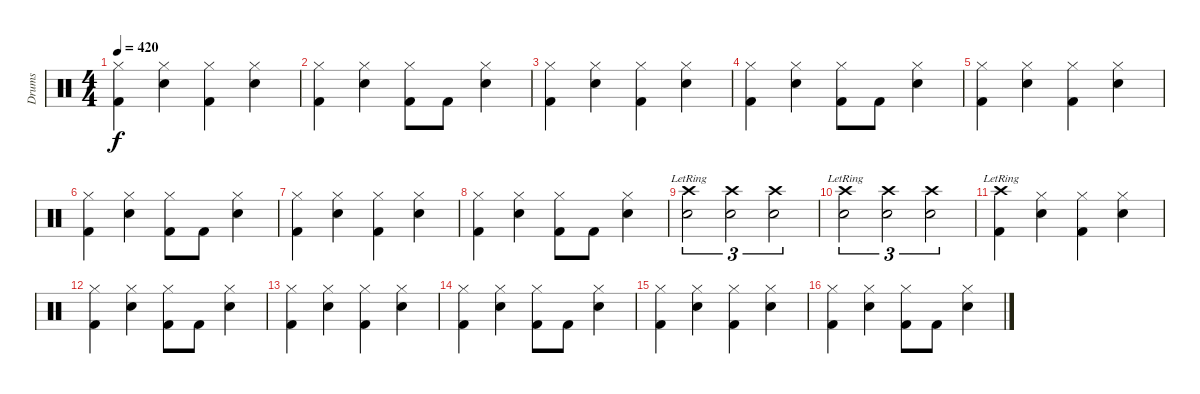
\track ("Drums" "Drums") {instrument percussion}
\staff {score}
\articulation defaults
\ts (4 4)
\tempo 420
\clef neutral
\ks c
("Hi-Hat (closed)" "Kick (hit) 2").4{dy f} ("Hi-Hat (closed)" "Snare (hit) 2").4 ("Hi-Hat (closed)" "Kick (hit) 2").4 ("Hi-Hat (closed)" "Snare (hit) 2").4 |
("Hi-Hat (closed)" "Kick (hit) 2").4 ("Hi-Hat (closed)" "Snare (hit) 2").4 ("Hi-Hat (closed)" "Kick (hit) 2").8 "Kick (hit) 2".8 ("Hi-Hat (closed)" "Snare (hit) 2").4 |
("Hi-Hat (closed)" "Kick (hit) 2").4 ("Hi-Hat (closed)" "Snare (hit) 2").4 ("Hi-Hat (closed)" "Kick (hit) 2").4 ("Hi-Hat (closed)" "Snare (hit) 2").4 |
("Hi-Hat (closed)" "Kick (hit) 2").4 ("Hi-Hat (closed)" "Snare (hit) 2").4 ("Hi-Hat (closed)" "Kick (hit) 2").8 "Kick (hit) 2".8 ("Hi-Hat (closed)" "Snare (hit) 2").4 |
("Hi-Hat (closed)" "Kick (hit) 2").4 ("Hi-Hat (closed)" "Snare (hit) 2").4 ("Hi-Hat (closed)" "Kick (hit) 2").4 ("Hi-Hat (closed)" "Snare (hit) 2").4 |
("Hi-Hat (closed)" "Kick (hit) 2").4 ("Hi-Hat (closed)" "Snare (hit) 2").4 ("Hi-Hat (closed)" "Kick (hit) 2").8 "Kick (hit) 2".8 ("Hi-Hat (closed)" "Snare (hit) 2").4 |
("Hi-Hat (closed)" "Kick (hit) 2").4 ("Hi-Hat (closed)" "Snare (hit) 2").4 ("Hi-Hat (closed)" "Kick (hit) 2").4 ("Hi-Hat (closed)" "Snare (hit) 2").4 |
("Hi-Hat (closed)" "Kick (hit) 2").4 ("Hi-Hat (closed)" "Snare (hit) 2").4 ("Hi-Hat (closed)" "Kick (hit) 2").8 "Kick (hit) 2".8 ("Hi-Hat (closed)" "Snare (hit) 2").4 |
("Crash high (hit)"{lr} "Snare (hit) 2").2{tu (3 2)} ("Crash high (hit)" "Snare (hit) 2").2{tu (3 2)} ("Crash high (hit)" "Snare (hit) 2").2{tu (3 2)} |
("Crash high (hit)"{lr} "Snare (hit) 2").2{tu (3 2)} ("Crash high (hit)" "Snare (hit) 2").2{tu (3 2)} ("Crash high (hit)" "Snare (hit) 2").2{tu (3 2)} |
("Crash high (hit)"{lr} "Kick (hit) 2").4 ("Hi-Hat (closed)" "Snare (hit) 2").4 ("Hi-Hat (closed)" "Kick (hit) 2").4 ("Hi-Hat (closed)" "Snare (hit) 2").4 |
("Hi-Hat (closed)" "Kick (hit) 2").4 ("Hi-Hat (closed)" "Snare (hit) 2").4 ("Hi-Hat (closed)" "Kick (hit) 2").8 "Kick (hit) 2".8 ("Hi-Hat (closed)" "Snare (hit) 2").4 |
("Hi-Hat (closed)" "Kick (hit) 2").4 ("Hi-Hat (closed)" "Snare (hit) 2").4 ("Hi-Hat (closed)" "Kick (hit) 2").4 ("Hi-Hat (closed)" "Snare (hit) 2").4 |
("Hi-Hat (closed)" "Kick (hit) 2").4 ("Hi-Hat (closed)" "Snare (hit) 2").4 ("Hi-Hat (closed)" "Kick (hit) 2").8 "Kick (hit) 2".8 ("Hi-Hat (closed)" "Snare (hit) 2").4 |
("Hi-Hat (closed)" "Kick (hit) 2").4 ("Hi-Hat (closed)" "Snare (hit) 2").4 ("Hi-Hat (closed)" "Kick (hit) 2").4 ("Hi-Hat (closed)" "Snare (hit) 2").4 |
("Hi-Hat (closed)" "Kick (hit) 2").4 ("Hi-Hat (closed)" "Snare (hit) 2").4 ("Hi-Hat (closed)" "Kick (hit) 2").8 "Kick (hit) 2".8 ("Hi-Hat (closed)" "Snare (hit) 2").4
